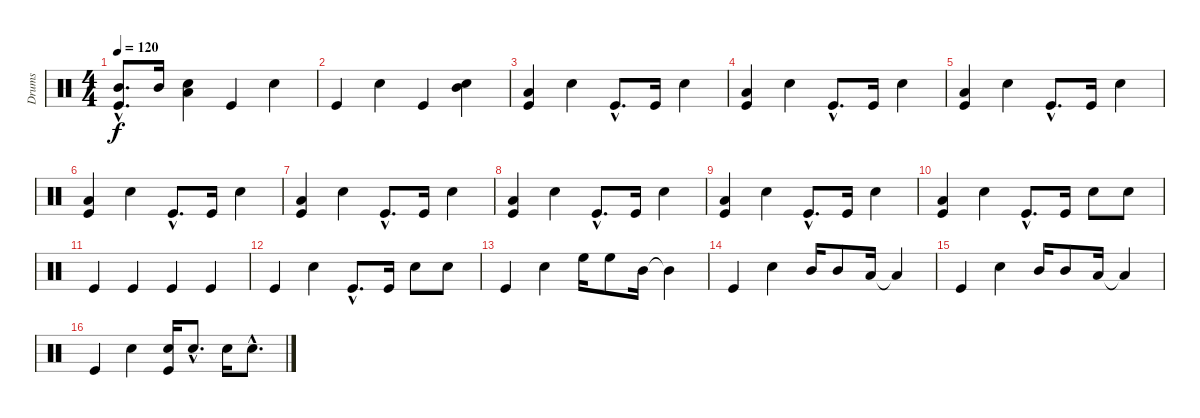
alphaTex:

\track ("Drums" "Drums") {instrument percussion}
\staff {score}
\articulation defaults
\ts (4 4)
\tempo 120
\clef neutral
\ks c
("Kick (hit)"{hac} "Mid Tom (hit)"{hac}).8{d dy f} "Mid Tom (hit)".16 ("Snare (hit) 2" "Low Tom (hit)").4 "Kick (hit)".4 "Snare (hit) 2".4 |
"Kick (hit)".4 "Snare (hit) 2".4 "Kick (hit)".4 ("Snare (hit) 2" "Mid Tom (hit)").4 |
("Kick (hit)" "Low Tom (hit)").4 "Snare (hit) 2".4 "Kick (hit)"{hac}.8{d} "Kick (hit)".16 "Snare (hit) 2".4 |
("Kick (hit)" "Low Tom (hit)").4 "Snare (hit) 2".4 "Kick (hit)"{hac}.8{d} "Kick (hit)".16 "Snare (hit) 2".4 |
("Kick (hit)" "Low Tom (hit)").4 "Snare (hit) 2".4 "Kick (hit)"{hac}.8{d} "Kick (hit)".16 "Snare (hit) 2".4 |
("Kick (hit)" "Low Tom (hit)").4 "Snare (hit) 2".4 "Kick (hit)"{hac}.8{d} "Kick (hit)".16 "Snare (hit) 2".4 |
("Kick (hit)" "Low Tom (hit)").4 "Snare (hit) 2".4 "Kick (hit)"{hac}.8{d} "Kick (hit)".16 "Snare (hit) 2".4 |
("Kick (hit)" "Low Tom (hit)").4 "Snare (hit) 2".4 "Kick (hit)"{hac}.8{d} "Kick (hit)".16 "Snare (hit) 2".4 |
("Kick (hit)" "Low Tom (hit)").4 "Snare (hit) 2".4 "Kick (hit)"{hac}.8{d} "Kick (hit)".16 "Snare (hit) 2".4 |
("Kick (hit)" "Low Tom (hit)").4 "Snare (hit) 2".4 "Kick (hit)"{hac}.8{d} "Kick (hit)".16 "Snare (hit) 2".8 "Snare (hit) 2".8 |
"Kick (hit)".4 "Kick (hit)".4 "Kick (hit)".4 "Kick (hit)".4 |
"Kick (hit)".4 "Snare (hit) 2".4 "Kick (hit)"{hac}.8{d} "Kick (hit)".16 "Snare (hit) 2".8 "Snare (hit) 2".8 |
"Kick (hit)".4 "Snare (hit) 2".4 "High Floor Tom (hit)".16 "High Floor Tom (hit)".8 "Mid Tom (hit)".16 "Mid Tom (hit)"{t}.4 |
"Kick (hit)".4 "Snare (hit) 2".4 "Mid Tom (hit)".16 "Mid Tom (hit)".8 "Low Tom (hit)".16 "Low Tom (hit)"{t}.4 |
"Kick (hit)".4 "Snare (hit) 2".4 "Mid Tom (hit)".16 "Mid Tom (hit)".8 "Low Floor Tom (hit)".16 "Low Floor Tom (hit)"{t}.4 |
"Kick (hit)".4 "Snare (hit) 2".4 ("Kick (hit)" "Snare (hit) 2").16 "Snare (hit) 2"{hac}.8{d} "Snare (hit) 2".16 "Snare (hit) 2"{hac}.8{d}
